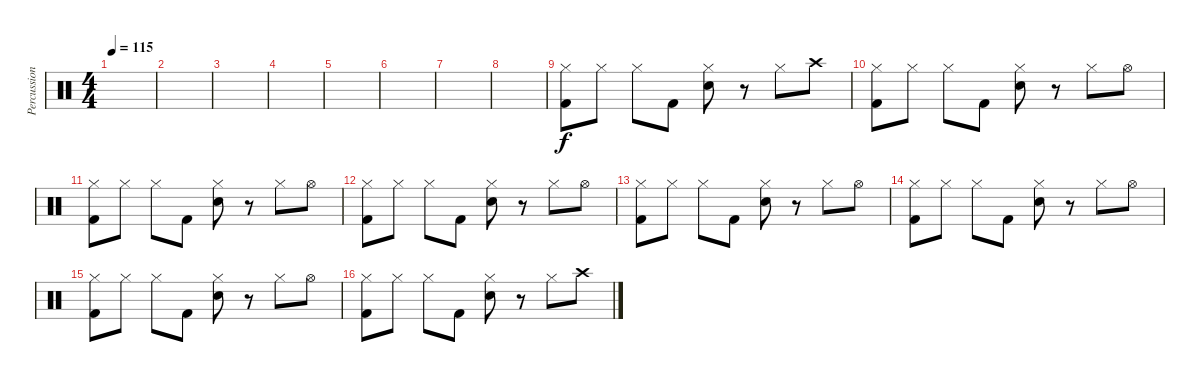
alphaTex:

\track ("Percussion" "Percussion") {instrument percussion}
\staff {score}
\articulation defaults
\ts (4 4)
\tempo 115
\clef neutral
\ks c
|
|
|
|
|
|
|
|
("Hi-Hat (closed)" "Kick (hit) 2").8 "Hi-Hat (closed)".8 "Hi-Hat (closed)".8 "Kick (hit) 2".8 ("Hi-Hat (closed)" "Snare (hit) 2").8 r.8 "Hi-Hat (closed)".8 "Crash high (hit)".8 |
("Hi-Hat (closed)" "Kick (hit) 2").8 "Hi-Hat (closed)".8 "Hi-Hat (closed)".8 "Kick (hit) 2".8 ("Hi-Hat (closed)" "Snare (hit) 2").8 r.8 "Hi-Hat (closed)".8 "Hi-Hat (open)".8 |
("Hi-Hat (closed)" "Kick (hit) 2").8 "Hi-Hat (closed)".8 "Hi-Hat (closed)".8 "Kick (hit) 2".8 ("Hi-Hat (closed)" "Snare (hit) 2").8 r.8 "Hi-Hat (closed)".8 "Hi-Hat (open)".8 |
("Hi-Hat (closed)" "Kick (hit) 2").8 "Hi-Hat (closed)".8 "Hi-Hat (closed)".8 "Kick (hit) 2".8 ("Hi-Hat (closed)" "Snare (hit) 2").8 r.8 "Hi-Hat (closed)".8 "Hi-Hat (open)".8 |
("Hi-Hat (closed)" "Kick (hit) 2").8 "Hi-Hat (closed)".8 "Hi-Hat (closed)".8 "Kick (hit) 2".8 ("Hi-Hat (closed)" "Snare (hit) 2").8 r.8 "Hi-Hat (closed)".8 "Hi-Hat (open)".8 |
("Hi-Hat (closed)" "Kick (hit) 2").8 "Hi-Hat (closed)".8 "Hi-Hat (closed)".8 "Kick (hit) 2".8 ("Hi-Hat (closed)" "Snare (hit) 2").8 r.8 "Hi-Hat (closed)".8 "Hi-Hat (open)".8 |
("Hi-Hat (closed)" "Kick (hit) 2").8 "Hi-Hat (closed)".8 "Hi-Hat (closed)".8 "Kick (hit) 2".8 ("Hi-Hat (closed)" "Snare (hit) 2").8 r.8 "Hi-Hat (closed)".8 "Hi-Hat (open)".8 |
("Hi-Hat (closed)" "Kick (hit) 2").8 "Hi-Hat (closed)".8 "Hi-Hat (closed)".8 "Kick (hit) 2".8 ("Hi-Hat (closed)" "Snare (hit) 2").8 r.8 "Hi-Hat (closed)".8 "Crash high (hit)".8
